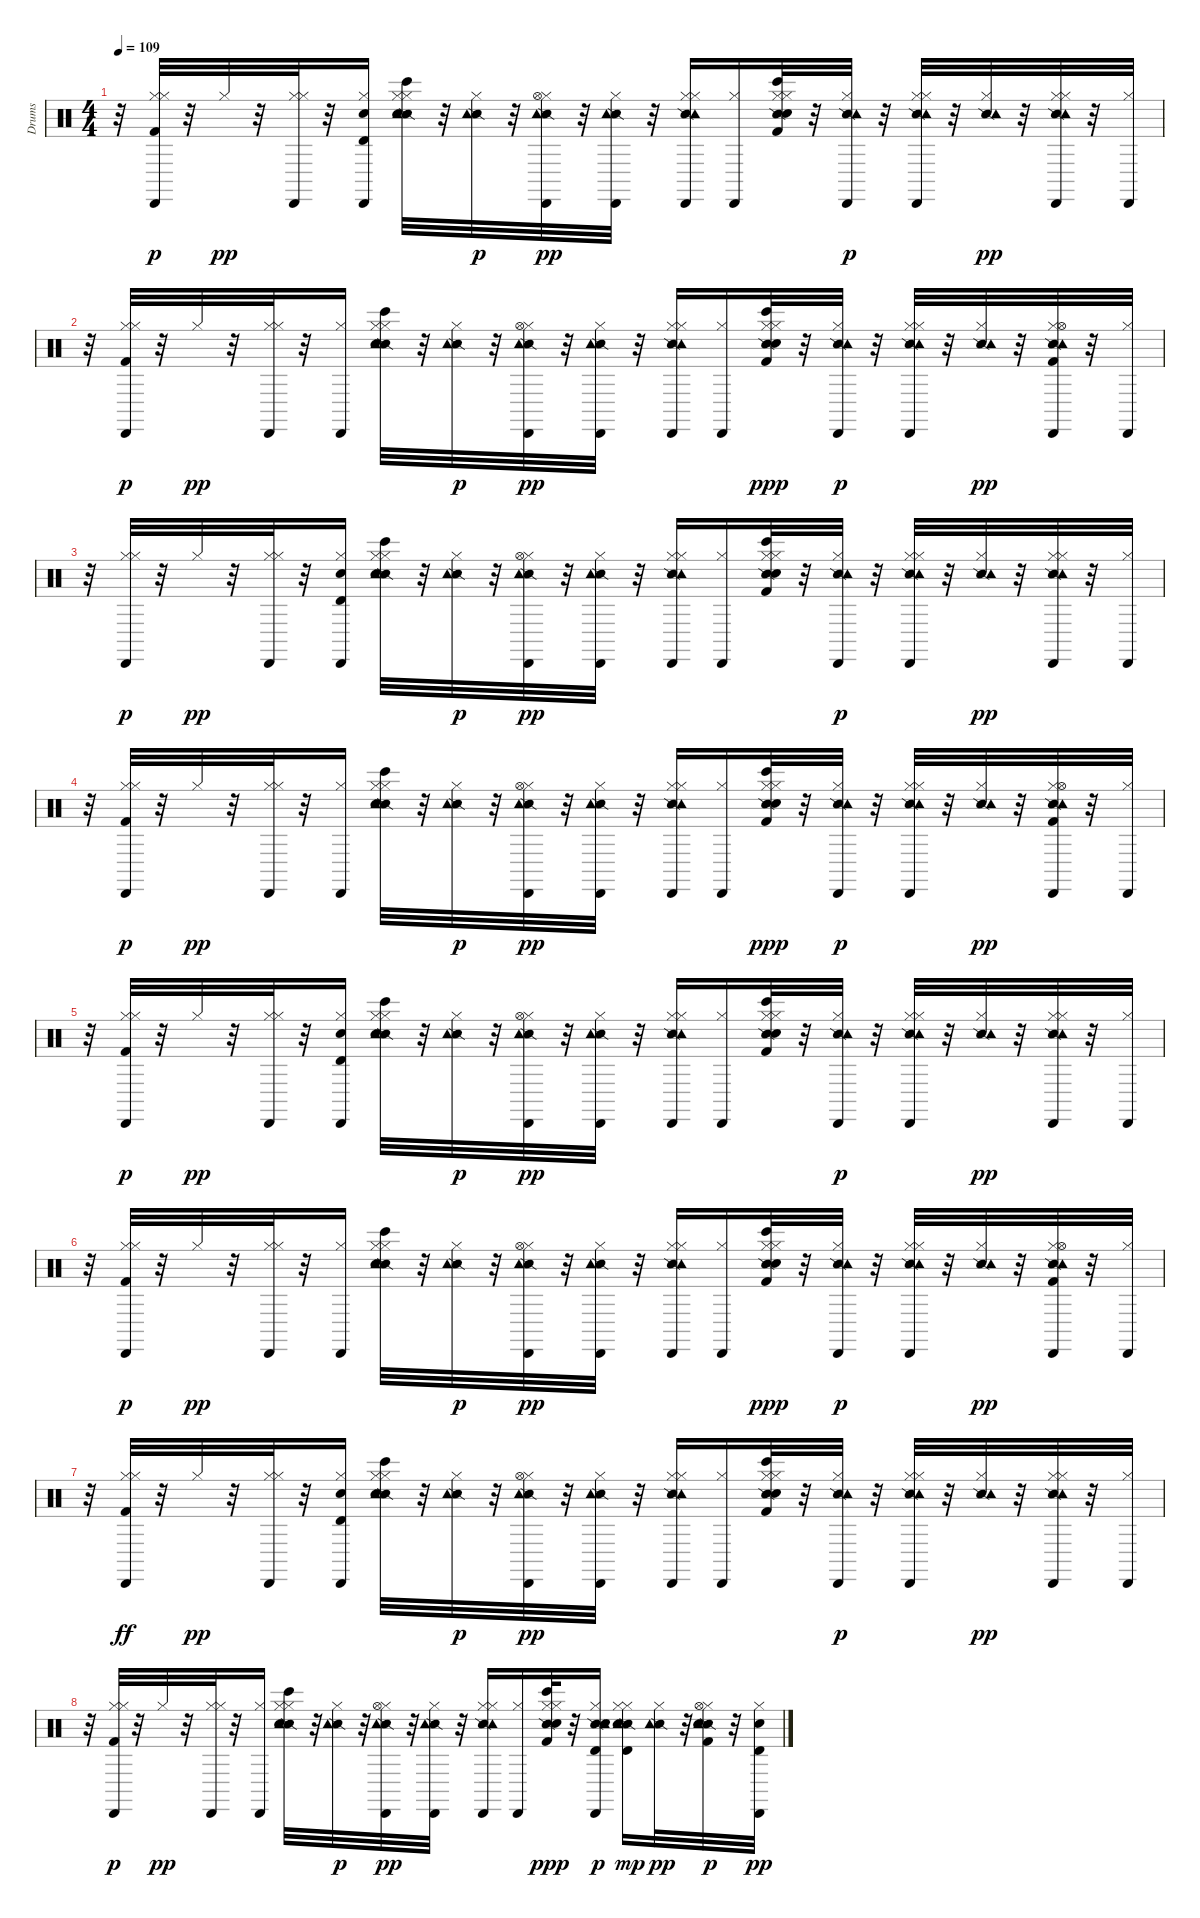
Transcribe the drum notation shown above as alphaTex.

\track ("Drums" "Drums") {instrument percussion}
\staff {score}
\articulation defaults
\ts (4 4)
\tempo 109
\clef neutral
\ks c
r.32{dy mp} ("Kick (hit) 2" "Hi-Hat (closed)" "Hi-Hat (closed)" "Cabasa (hit)").32{dy p} r.32 "Hi-Hat (closed)".32{dy pp} r.32 ("Hi-Hat (closed)" "Hi-Hat (closed)" "Cabasa (hit)").32 r.32 ("Hi-Hat (closed)" "Electric Snare (hit)" "Timbale high (hit)" "Cabasa (hit)").16 ("Hi-Hat (closed)" "Bongo High (hit)" "Snare (side stick) 2" "Electric Snare (hit)" "Hi-Hat (closed)" "Tambourine (hit)").32 r.32 ("Hi-Hat (closed)" "Snare (side stick) 2" "Tambourine (hit)").32{dy p} r.32 ("Hi-Hat (closed)" "Snare (side stick) 2" "Hi-Hat (open)" "Tambourine (hit)" "Cabasa (hit)").32{dy pp} r.32 ("Hi-Hat (closed)" "Snare (side stick) 2" "Tambourine (hit)" "Cabasa (hit)").32 r.32 ("Hi-Hat (closed)" "Snare (side stick) 2" "Hi-Hat (closed)" "Tambourine (hit)" "Cabasa (hit)").16 ("Hi-Hat (closed)" "Cabasa (hit)").16 ("Kick (hit) 2" "Hi-Hat (closed)" "Bongo High (hit)" "Snare (side stick) 2" "Electric Snare (hit)" "Hi-Hat (closed)").32 r.32 ("Hi-Hat (closed)" "Snare (side stick) 2" "Tambourine (hit)" "Cabasa (hit)").32{dy p} r.32 ("Hi-Hat (closed)" "Snare (side stick) 2" "Hi-Hat (closed)" "Tambourine (hit)" "Cabasa (hit)").32 r.32 ("Hi-Hat (closed)" "Snare (side stick) 2" "Tambourine (hit)").32{dy pp} r.32 ("Hi-Hat (closed)" "Snare (side stick) 2" "Hi-Hat (closed)" "Tambourine (hit)" "Cabasa (hit)").32 r.32 ("Hi-Hat (closed)" "Cabasa (hit)").32 |
r.32 ("Kick (hit) 2" "Hi-Hat (closed)" "Hi-Hat (closed)" "Cabasa (hit)").32{dy p} r.32 "Hi-Hat (closed)".32{dy pp} r.32 ("Hi-Hat (closed)" "Hi-Hat (closed)" "Cabasa (hit)").32 r.32 ("Hi-Hat (closed)" "Cabasa (hit)").16 ("Hi-Hat (closed)" "Bongo High (hit)" "Snare (side stick) 2" "Electric Snare (hit)" "Hi-Hat (closed)" "Tambourine (hit)").32 r.32 ("Hi-Hat (closed)" "Snare (side stick) 2" "Tambourine (hit)").32{dy p} r.32 ("Hi-Hat (closed)" "Snare (side stick) 2" "Hi-Hat (open)" "Tambourine (hit)" "Cabasa (hit)").32{dy pp} r.32 ("Hi-Hat (closed)" "Snare (side stick) 2" "Tambourine (hit)" "Cabasa (hit)").32 r.32 ("Hi-Hat (closed)" "Snare (side stick) 2" "Hi-Hat (closed)" "Tambourine (hit)" "Cabasa (hit)").16 ("Hi-Hat (closed)" "Cabasa (hit)").16 ("Kick (hit) 2" "Hi-Hat (closed)" "Bongo High (hit)" "Snare (side stick) 2" "Electric Snare (hit)" "Hi-Hat (closed)").32{dy ppp} r.32 ("Hi-Hat (closed)" "Snare (side stick) 2" "Tambourine (hit)" "Cabasa (hit)").32{dy p} r.32 ("Hi-Hat (closed)" "Snare (side stick) 2" "Hi-Hat (closed)" "Tambourine (hit)" "Cabasa (hit)").32 r.32 ("Hi-Hat (closed)" "Snare (side stick) 2" "Tambourine (hit)").32{dy pp} r.32 ("Kick (hit) 2" "Hi-Hat (closed)" "Snare (side stick) 2" "Hi-Hat (open)" "Tambourine (hit)" "Cabasa (hit)").32 r.32 ("Hi-Hat (closed)" "Cabasa (hit)").32 |
r.32 ("Hi-Hat (closed)" "Hi-Hat (closed)" "Cabasa (hit)").32{dy p} r.32 "Hi-Hat (closed)".32{dy pp} r.32 ("Hi-Hat (closed)" "Hi-Hat (closed)" "Cabasa (hit)").32 r.32 ("Hi-Hat (closed)" "Electric Snare (hit)" "Timbale high (hit)" "Cabasa (hit)").16 ("Hi-Hat (closed)" "Bongo High (hit)" "Snare (side stick) 2" "Electric Snare (hit)" "Hi-Hat (closed)" "Tambourine (hit)").32 r.32 ("Hi-Hat (closed)" "Snare (side stick) 2" "Tambourine (hit)").32{dy p} r.32 ("Hi-Hat (closed)" "Snare (side stick) 2" "Hi-Hat (open)" "Tambourine (hit)" "Cabasa (hit)").32{dy pp} r.32 ("Hi-Hat (closed)" "Snare (side stick) 2" "Tambourine (hit)" "Cabasa (hit)").32 r.32 ("Hi-Hat (closed)" "Snare (side stick) 2" "Hi-Hat (closed)" "Tambourine (hit)" "Cabasa (hit)").16 ("Hi-Hat (closed)" "Cabasa (hit)").16 ("Kick (hit) 2" "Hi-Hat (closed)" "Bongo High (hit)" "Snare (side stick) 2" "Electric Snare (hit)" "Hi-Hat (closed)").32 r.32 ("Hi-Hat (closed)" "Snare (side stick) 2" "Tambourine (hit)" "Cabasa (hit)").32{dy p} r.32 ("Hi-Hat (closed)" "Snare (side stick) 2" "Hi-Hat (closed)" "Tambourine (hit)" "Cabasa (hit)").32 r.32 ("Hi-Hat (closed)" "Snare (side stick) 2" "Tambourine (hit)").32{dy pp} r.32 ("Hi-Hat (closed)" "Snare (side stick) 2" "Hi-Hat (closed)" "Tambourine (hit)" "Cabasa (hit)").32 r.32 ("Hi-Hat (closed)" "Cabasa (hit)").32 |
r.32 ("Kick (hit) 2" "Hi-Hat (closed)" "Hi-Hat (closed)" "Cabasa (hit)").32{dy p} r.32 "Hi-Hat (closed)".32{dy pp} r.32 ("Hi-Hat (closed)" "Hi-Hat (closed)" "Cabasa (hit)").32 r.32 ("Hi-Hat (closed)" "Cabasa (hit)").16 ("Hi-Hat (closed)" "Bongo High (hit)" "Snare (side stick) 2" "Electric Snare (hit)" "Hi-Hat (closed)" "Tambourine (hit)").32 r.32 ("Hi-Hat (closed)" "Snare (side stick) 2" "Tambourine (hit)").32{dy p} r.32 ("Hi-Hat (closed)" "Snare (side stick) 2" "Hi-Hat (open)" "Tambourine (hit)" "Cabasa (hit)").32{dy pp} r.32 ("Hi-Hat (closed)" "Snare (side stick) 2" "Tambourine (hit)" "Cabasa (hit)").32 r.32 ("Hi-Hat (closed)" "Snare (side stick) 2" "Hi-Hat (closed)" "Tambourine (hit)" "Cabasa (hit)").16 ("Hi-Hat (closed)" "Cabasa (hit)").16 ("Kick (hit) 2" "Hi-Hat (closed)" "Bongo High (hit)" "Snare (side stick) 2" "Electric Snare (hit)" "Hi-Hat (closed)").32{dy ppp} r.32 ("Hi-Hat (closed)" "Snare (side stick) 2" "Tambourine (hit)" "Cabasa (hit)").32{dy p} r.32 ("Hi-Hat (closed)" "Snare (side stick) 2" "Hi-Hat (closed)" "Tambourine (hit)" "Cabasa (hit)").32 r.32 ("Hi-Hat (closed)" "Snare (side stick) 2" "Tambourine (hit)").32{dy pp} r.32 ("Kick (hit) 2" "Hi-Hat (closed)" "Snare (side stick) 2" "Hi-Hat (open)" "Tambourine (hit)" "Cabasa (hit)").32 r.32 ("Hi-Hat (closed)" "Cabasa (hit)").32 |
r.32 ("Kick (hit) 2" "Hi-Hat (closed)" "Hi-Hat (closed)" "Cabasa (hit)").32{dy p} r.32 "Hi-Hat (closed)".32{dy pp} r.32 ("Hi-Hat (closed)" "Hi-Hat (closed)" "Cabasa (hit)").32 r.32 ("Hi-Hat (closed)" "Electric Snare (hit)" "Timbale high (hit)" "Cabasa (hit)").16 ("Hi-Hat (closed)" "Bongo High (hit)" "Snare (side stick) 2" "Electric Snare (hit)" "Hi-Hat (closed)" "Tambourine (hit)").32 r.32 ("Hi-Hat (closed)" "Snare (side stick) 2" "Tambourine (hit)").32{dy p} r.32 ("Hi-Hat (closed)" "Snare (side stick) 2" "Hi-Hat (open)" "Tambourine (hit)" "Cabasa (hit)").32{dy pp} r.32 ("Hi-Hat (closed)" "Snare (side stick) 2" "Tambourine (hit)" "Cabasa (hit)").32 r.32 ("Hi-Hat (closed)" "Snare (side stick) 2" "Hi-Hat (closed)" "Tambourine (hit)" "Cabasa (hit)").16 ("Hi-Hat (closed)" "Cabasa (hit)").16 ("Kick (hit) 2" "Hi-Hat (closed)" "Bongo High (hit)" "Snare (side stick) 2" "Electric Snare (hit)" "Hi-Hat (closed)").32 r.32 ("Hi-Hat (closed)" "Snare (side stick) 2" "Tambourine (hit)" "Cabasa (hit)").32{dy p} r.32 ("Hi-Hat (closed)" "Snare (side stick) 2" "Hi-Hat (closed)" "Tambourine (hit)" "Cabasa (hit)").32 r.32 ("Hi-Hat (closed)" "Snare (side stick) 2" "Tambourine (hit)").32{dy pp} r.32 ("Hi-Hat (closed)" "Snare (side stick) 2" "Hi-Hat (closed)" "Tambourine (hit)" "Cabasa (hit)").32 r.32 ("Hi-Hat (closed)" "Cabasa (hit)").32 |
r.32 ("Kick (hit) 2" "Hi-Hat (closed)" "Hi-Hat (closed)" "Cabasa (hit)").32{dy p} r.32 "Hi-Hat (closed)".32{dy pp} r.32 ("Hi-Hat (closed)" "Hi-Hat (closed)" "Cabasa (hit)").32 r.32 ("Hi-Hat (closed)" "Cabasa (hit)").16 ("Hi-Hat (closed)" "Bongo High (hit)" "Snare (side stick) 2" "Electric Snare (hit)" "Hi-Hat (closed)" "Tambourine (hit)").32 r.32 ("Hi-Hat (closed)" "Snare (side stick) 2" "Tambourine (hit)").32{dy p} r.32 ("Hi-Hat (closed)" "Snare (side stick) 2" "Hi-Hat (open)" "Tambourine (hit)" "Cabasa (hit)").32{dy pp} r.32 ("Hi-Hat (closed)" "Snare (side stick) 2" "Tambourine (hit)" "Cabasa (hit)").32 r.32 ("Hi-Hat (closed)" "Snare (side stick) 2" "Hi-Hat (closed)" "Tambourine (hit)" "Cabasa (hit)").16 ("Hi-Hat (closed)" "Cabasa (hit)").16 ("Kick (hit) 2" "Hi-Hat (closed)" "Bongo High (hit)" "Snare (side stick) 2" "Electric Snare (hit)" "Hi-Hat (closed)").32{dy ppp} r.32 ("Hi-Hat (closed)" "Snare (side stick) 2" "Tambourine (hit)" "Cabasa (hit)").32{dy p} r.32 ("Hi-Hat (closed)" "Snare (side stick) 2" "Hi-Hat (closed)" "Tambourine (hit)" "Cabasa (hit)").32 r.32 ("Hi-Hat (closed)" "Snare (side stick) 2" "Tambourine (hit)").32{dy pp} r.32 ("Kick (hit) 2" "Hi-Hat (closed)" "Snare (side stick) 2" "Hi-Hat (open)" "Tambourine (hit)" "Cabasa (hit)").32 r.32 ("Hi-Hat (closed)" "Cabasa (hit)").32 |
r.32 ("Hi-Hat (closed)" "Hi-Hat (closed)" "Cabasa (hit)" "Kick (hit) 2").32{dy ff} r.32 "Hi-Hat (closed)".32{dy pp} r.32 ("Hi-Hat (closed)" "Hi-Hat (closed)" "Cabasa (hit)").32 r.32 ("Hi-Hat (closed)" "Electric Snare (hit)" "Timbale high (hit)" "Cabasa (hit)").16 ("Hi-Hat (closed)" "Bongo High (hit)" "Snare (side stick) 2" "Electric Snare (hit)" "Hi-Hat (closed)" "Tambourine (hit)").32 r.32 ("Hi-Hat (closed)" "Snare (side stick) 2" "Tambourine (hit)").32{dy p} r.32 ("Hi-Hat (closed)" "Snare (side stick) 2" "Hi-Hat (open)" "Tambourine (hit)" "Cabasa (hit)").32{dy pp} r.32 ("Hi-Hat (closed)" "Snare (side stick) 2" "Tambourine (hit)" "Cabasa (hit)").32 r.32 ("Hi-Hat (closed)" "Snare (side stick) 2" "Hi-Hat (closed)" "Tambourine (hit)" "Cabasa (hit)").16 ("Hi-Hat (closed)" "Cabasa (hit)").16 ("Kick (hit) 2" "Hi-Hat (closed)" "Bongo High (hit)" "Snare (side stick) 2" "Electric Snare (hit)" "Hi-Hat (closed)").32 r.32 ("Hi-Hat (closed)" "Snare (side stick) 2" "Tambourine (hit)" "Cabasa (hit)").32{dy p} r.32 ("Hi-Hat (closed)" "Snare (side stick) 2" "Hi-Hat (closed)" "Tambourine (hit)" "Cabasa (hit)").32 r.32 ("Hi-Hat (closed)" "Snare (side stick) 2" "Tambourine (hit)").32{dy pp} r.32 ("Hi-Hat (closed)" "Snare (side stick) 2" "Hi-Hat (closed)" "Tambourine (hit)" "Cabasa (hit)").32 r.32 ("Hi-Hat (closed)" "Cabasa (hit)").32 |
r.32 ("Kick (hit) 2" "Hi-Hat (closed)" "Hi-Hat (closed)" "Cabasa (hit)").32{dy p} r.32 "Hi-Hat (closed)".32{dy pp} r.32 ("Hi-Hat (closed)" "Hi-Hat (closed)" "Cabasa (hit)").32 r.32 ("Hi-Hat (closed)" "Cabasa (hit)").16 ("Hi-Hat (closed)" "Bongo High (hit)" "Snare (side stick) 2" "Electric Snare (hit)" "Hi-Hat (closed)" "Tambourine (hit)").32 r.32 ("Hi-Hat (closed)" "Snare (side stick) 2" "Tambourine (hit)").32{dy p} r.32 ("Hi-Hat (closed)" "Snare (side stick) 2" "Hi-Hat (open)" "Tambourine (hit)" "Cabasa (hit)").32{dy pp} r.32 ("Hi-Hat (closed)" "Snare (side stick) 2" "Tambourine (hit)" "Cabasa (hit)").32 r.32 ("Hi-Hat (closed)" "Snare (side stick) 2" "Hi-Hat (closed)" "Tambourine (hit)" "Cabasa (hit)").16 ("Hi-Hat (closed)" "Cabasa (hit)").16 ("Kick (hit) 2" "Hi-Hat (closed)" "Bongo High (hit)" "Snare (side stick) 2" "Electric Snare (hit)" "Hi-Hat (closed)").32{dy ppp} r.32 ("Hi-Hat (closed)" "Snare (side stick) 2" "Electric Snare (hit)" "Tambourine (hit)" "Timbale high (hit)" "Cabasa (hit)").16{dy p} ("Hi-Hat (closed)" "Snare (side stick) 2" "Electric Snare (hit)" "Hi-Hat (closed)" "Tambourine (hit)" "Timbale high (hit)").16{dy mp} ("Hi-Hat (closed)" "Snare (side stick) 2" "Tambourine (hit)").32{dy pp} r.32 ("Kick (hit) 2" "Hi-Hat (closed)" "Snare (side stick) 2" "Electric Snare (hit)" "Hi-Hat (open)" "Tambourine (hit)").32{dy p} r.32 ("Hi-Hat (closed)" "Electric Snare (hit)" "Timbale high (hit)" "Cabasa (hit)").32{dy pp}
